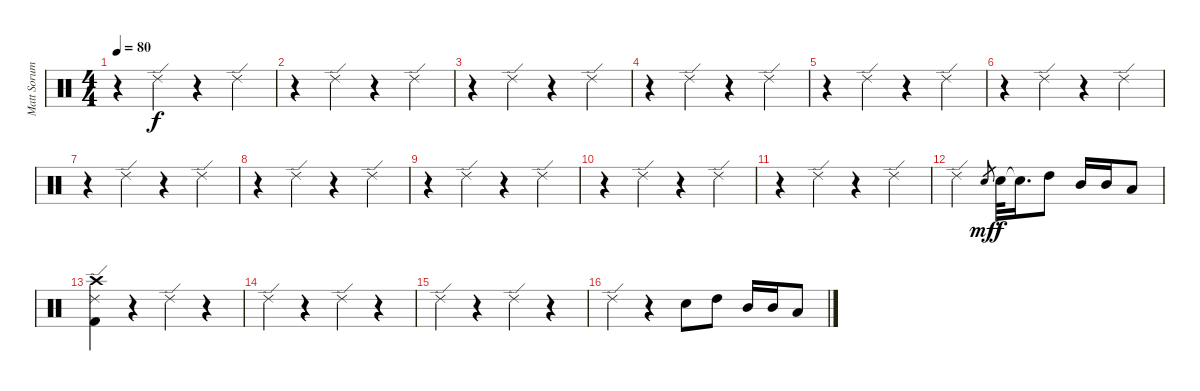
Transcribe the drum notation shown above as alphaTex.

\track ("Matt Sorum" "Matt Sorum") {instrument percussion}
\staff {score}
\articulation defaults
\ts (4 4)
\tempo 80
\clef neutral
\ks c
r.4{dy f} "Ride (edge) 2".4 r.4 "Ride (edge) 2".4 |
r.4 "Ride (edge) 2".4 r.4 "Ride (edge) 2".4 |
r.4 "Ride (edge) 2".4 r.4 "Ride (edge) 2".4 |
r.4 "Ride (edge) 2".4 r.4 "Ride (edge) 2".4 |
r.4 "Ride (edge) 2".4 r.4 "Ride (edge) 2".4 |
r.4 "Ride (edge) 2".4 r.4 "Ride (edge) 2".4 |
r.4 "Ride (edge) 2".4 r.4 "Ride (edge) 2".4 |
r.4 "Ride (edge) 2".4 r.4 "Ride (edge) 2".4 |
r.4 "Ride (edge) 2".4 r.4 "Ride (edge) 2".4 |
r.4 "Ride (edge) 2".4 r.4 "Ride (edge) 2".4 |
r.4 "Ride (edge) 2".4 r.4 "Ride (edge) 2".4 |
"Ride (edge) 2".2 "Electric Snare (hit)".8{gr dy mf} "Electric Snare (hit)".32{dy f} "Snare (hit)"{t}.16{d} "High Tom (hit)".8 "Mid Tom (hit)".16 "Mid Tom (hit)".16 "Low Tom (hit)".8 |
("Ride (edge) 2" "Kick (hit) 2" "Crash high (hit)").4 r.4 "Ride (edge) 2".4 r.4 |
"Ride (edge) 2".4 r.4 "Ride (edge) 2".4 r.4 |
"Ride (edge) 2".4 r.4 "Ride (edge) 2".4 r.4 |
"Ride (edge) 2".4 r.4 "Electric Snare (hit)".8 "High Tom (hit)".8 "Mid Tom (hit)".16 "Mid Tom (hit)".16 "Low Tom (hit)".8
